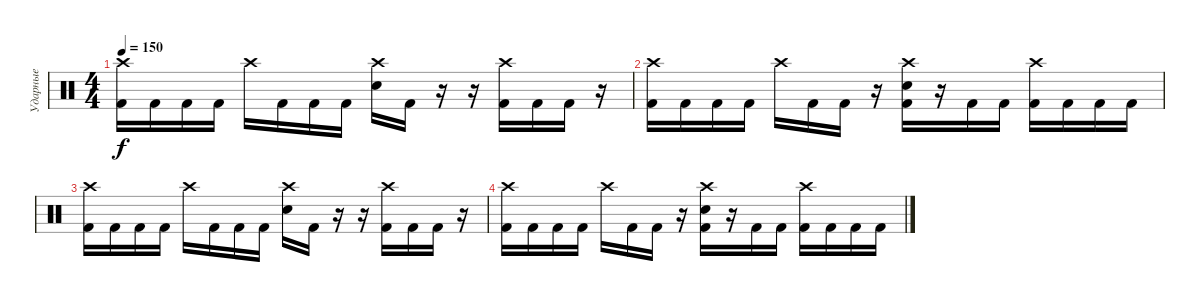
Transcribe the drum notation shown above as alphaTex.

\track ("Ударные" "Ударные") {instrument percussion}
\staff {score}
\articulation defaults
\ts (4 4)
\tempo 150
\clef neutral
\ks c
("Crash high (hit)" "Kick (hit) 2").16{dy f} "Kick (hit) 2".16 "Kick (hit) 2".16 "Kick (hit) 2".16 "Crash high (hit)".16 "Kick (hit) 2".16 "Kick (hit) 2".16 "Kick (hit) 2".16 ("Crash high (hit)" "Electric Snare (hit)").16 "Kick (hit) 2".16 r.16 r.16 ("Crash high (hit)" "Kick (hit) 2").16 "Kick (hit) 2".16 "Kick (hit) 2".16 r.16 |
("Crash high (hit)" "Kick (hit) 2").16 "Kick (hit) 2".16 "Kick (hit) 2".16 "Kick (hit) 2".16 "Crash high (hit)".16 "Kick (hit) 2".16 "Kick (hit) 2".16 r.16 ("Crash high (hit)" "Electric Snare (hit)" "Kick (hit) 2").16 r.16 "Kick (hit) 2".16 "Kick (hit) 2".16 ("Crash high (hit)" "Kick (hit) 2").16 "Kick (hit) 2".16 "Kick (hit) 2".16 "Kick (hit) 2".16 |
("Crash high (hit)" "Kick (hit) 2").16 "Kick (hit) 2".16 "Kick (hit) 2".16 "Kick (hit) 2".16 "Crash high (hit)".16 "Kick (hit) 2".16 "Kick (hit) 2".16 "Kick (hit) 2".16 ("Crash high (hit)" "Electric Snare (hit)").16 "Kick (hit) 2".16 r.16 r.16 ("Crash high (hit)" "Kick (hit) 2").16 "Kick (hit) 2".16 "Kick (hit) 2".16 r.16 |
("Crash high (hit)" "Kick (hit) 2").16 "Kick (hit) 2".16 "Kick (hit) 2".16 "Kick (hit) 2".16 "Crash high (hit)".16 "Kick (hit) 2".16 "Kick (hit) 2".16 r.16 ("Crash high (hit)" "Electric Snare (hit)" "Kick (hit) 2").16 r.16 "Kick (hit) 2".16 "Kick (hit) 2".16 ("Crash high (hit)" "Kick (hit) 2").16 "Kick (hit) 2".16 "Kick (hit) 2".16 "Kick (hit) 2".16
